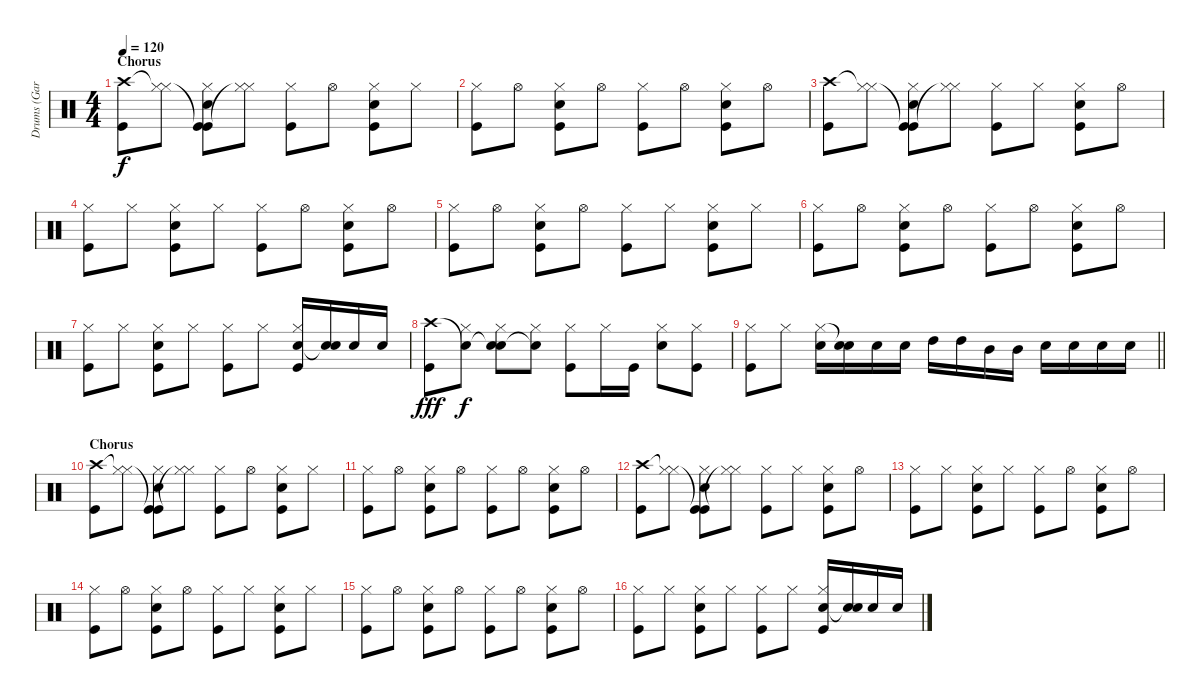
\track ("Drums (Gary Mallaber)" "Drums (Gar") {instrument percussion}
\staff {score}
\articulation defaults
\ts (4 4)
\section ("" "Chorus")
\tempo 120
\clef neutral
\ks c
("Crash high (hit)" "Kick (hit)").8{dy f} ("Hi-Hat (closed)"{t} "Hi-Hat (closed)").8 ("Kick (hit)"{t} "Hi-Hat (closed)" "Snare (hit) 2" "Kick (hit)").8 ("Hi-Hat (closed)"{t} "Hi-Hat (closed)").8 ("Hi-Hat (closed)" "Kick (hit)").8 "Hi-Hat (open)".8 ("Hi-Hat (closed)" "Snare (hit) 2" "Kick (hit)").8 "Hi-Hat (closed)".8 |
("Hi-Hat (closed)" "Kick (hit)").8 "Hi-Hat (open)".8 ("Hi-Hat (closed)" "Snare (hit) 2" "Kick (hit)").8 "Hi-Hat (open)".8 ("Hi-Hat (closed)" "Kick (hit)").8 "Hi-Hat (open)".8 ("Hi-Hat (closed)" "Snare (hit) 2" "Kick (hit)").8 "Hi-Hat (open)".8 |
("Crash high (hit)" "Kick (hit)").8 ("Hi-Hat (closed)"{t} "Hi-Hat (closed)").8 ("Kick (hit)"{t} "Hi-Hat (closed)" "Snare (hit) 2" "Kick (hit)").8 ("Hi-Hat (closed)"{t} "Hi-Hat (closed)").8 ("Hi-Hat (closed)" "Kick (hit)").8 "Hi-Hat (closed)".8 ("Hi-Hat (closed)" "Snare (hit) 2" "Kick (hit)").8 "Hi-Hat (open)".8 |
("Hi-Hat (closed)" "Kick (hit)").8 "Hi-Hat (closed)".8 ("Hi-Hat (closed)" "Snare (hit) 2" "Kick (hit)").8 "Hi-Hat (closed)".8 ("Hi-Hat (closed)" "Kick (hit)").8 "Hi-Hat (open)".8 ("Hi-Hat (closed)" "Snare (hit) 2" "Kick (hit)").8 "Hi-Hat (open)".8 |
("Hi-Hat (closed)" "Kick (hit)").8 "Hi-Hat (open)".8 ("Hi-Hat (closed)" "Snare (hit) 2" "Kick (hit)").8 "Hi-Hat (open)".8 ("Hi-Hat (closed)" "Kick (hit)").8 "Hi-Hat (closed)".8 ("Hi-Hat (closed)" "Snare (hit) 2" "Kick (hit)").8 "Hi-Hat (closed)".8 |
("Hi-Hat (closed)" "Kick (hit)").8 "Hi-Hat (open)".8 ("Hi-Hat (closed)" "Snare (hit) 2" "Kick (hit)").8 "Hi-Hat (open)".8 ("Hi-Hat (closed)" "Kick (hit)").8 "Hi-Hat (open)".8 ("Hi-Hat (closed)" "Snare (hit) 2" "Kick (hit)").8 "Hi-Hat (open)".8 |
("Hi-Hat (closed)" "Kick (hit)").8 "Hi-Hat (closed)".8 ("Hi-Hat (closed)" "Snare (hit) 2" "Kick (hit)").8 "Hi-Hat (closed)".8 ("Hi-Hat (closed)" "Kick (hit)").8 "Hi-Hat (closed)".8 ("Hi-Hat (closed)" "Snare (hit) 2" "Kick (hit)").16 ("Snare (hit) 2" "Snare (hit)"{t}).16 "Snare (hit) 2".16 "Snare (hit) 2".16 |
("Crash high (hit)" "Kick (hit)").8{dy fff} ("Snare (hit)"{t} "Hi-Hat (closed)").8{dy f} ("Snare (hit)"{t} "Hi-Hat (closed)" "Snare (hit) 2").8 ("Snare (hit)"{t} "Hi-Hat (closed)").8 ("Hi-Hat (closed)" "Kick (hit)").8 "Hi-Hat (closed)".16 "Kick (hit)".16 ("Hi-Hat (closed)" "Snare (hit) 2").8 ("Hi-Hat (closed)" "Kick (hit)").8 |
\barLineRight lightlight
("Hi-Hat (closed)" "Kick (hit)").8 "Hi-Hat (closed)".8 ("Hi-Hat (closed)" "Snare (hit) 2").16 ("Snare (hit)"{t} "Snare (hit) 2").16 "Snare (hit) 2".16 "Snare (hit) 2".16 "High Tom (hit)".16 "High Tom (hit)".16 "Mid Tom (hit)".16 "Mid Tom (hit)".16 "Snare (hit) 2".16 "Snare (hit) 2".16 "Snare (hit) 2".16 "Snare (hit) 2".16 |
\section ("" "Chorus")
("Crash high (hit)" "Kick (hit)").8 ("Hi-Hat (closed)"{t} "Hi-Hat (closed)").8 ("Kick (hit)"{t} "Hi-Hat (closed)" "Snare (hit) 2" "Kick (hit)").8 ("Hi-Hat (closed)"{t} "Hi-Hat (closed)").8 ("Hi-Hat (closed)" "Kick (hit)").8 "Hi-Hat (open)".8 ("Hi-Hat (closed)" "Snare (hit) 2" "Kick (hit)").8 "Hi-Hat (closed)".8 |
("Hi-Hat (closed)" "Kick (hit)").8 "Hi-Hat (open)".8 ("Hi-Hat (closed)" "Snare (hit) 2" "Kick (hit)").8 "Hi-Hat (open)".8 ("Hi-Hat (closed)" "Kick (hit)").8 "Hi-Hat (open)".8 ("Hi-Hat (closed)" "Snare (hit) 2" "Kick (hit)").8 "Hi-Hat (open)".8 |
("Crash high (hit)" "Kick (hit)").8 ("Hi-Hat (closed)"{t} "Hi-Hat (closed)").8 ("Kick (hit)"{t} "Hi-Hat (closed)" "Snare (hit) 2" "Kick (hit)").8 ("Hi-Hat (closed)"{t} "Hi-Hat (closed)").8 ("Hi-Hat (closed)" "Kick (hit)").8 "Hi-Hat (closed)".8 ("Hi-Hat (closed)" "Snare (hit) 2" "Kick (hit)").8 "Hi-Hat (open)".8 |
("Hi-Hat (closed)" "Kick (hit)").8 "Hi-Hat (closed)".8 ("Hi-Hat (closed)" "Snare (hit) 2" "Kick (hit)").8 "Hi-Hat (closed)".8 ("Hi-Hat (closed)" "Kick (hit)").8 "Hi-Hat (open)".8 ("Hi-Hat (closed)" "Snare (hit) 2" "Kick (hit)").8 "Hi-Hat (open)".8 |
("Hi-Hat (closed)" "Kick (hit)").8 "Hi-Hat (open)".8 ("Hi-Hat (closed)" "Snare (hit) 2" "Kick (hit)").8 "Hi-Hat (open)".8 ("Hi-Hat (closed)" "Kick (hit)").8 "Hi-Hat (closed)".8 ("Hi-Hat (closed)" "Snare (hit) 2" "Kick (hit)").8 "Hi-Hat (closed)".8 |
("Hi-Hat (closed)" "Kick (hit)").8 "Hi-Hat (open)".8 ("Hi-Hat (closed)" "Snare (hit) 2" "Kick (hit)").8 "Hi-Hat (open)".8 ("Hi-Hat (closed)" "Kick (hit)").8 "Hi-Hat (open)".8 ("Hi-Hat (closed)" "Snare (hit) 2" "Kick (hit)").8 "Hi-Hat (open)".8 |
("Hi-Hat (closed)" "Kick (hit)").8 "Hi-Hat (closed)".8 ("Hi-Hat (closed)" "Snare (hit) 2" "Kick (hit)").8 "Hi-Hat (closed)".8 ("Hi-Hat (closed)" "Kick (hit)").8 "Hi-Hat (closed)".8 ("Hi-Hat (closed)" "Snare (hit) 2" "Kick (hit)").16 ("Snare (hit) 2" "Snare (hit)"{t}).16 "Snare (hit) 2".16 "Snare (hit) 2".16
